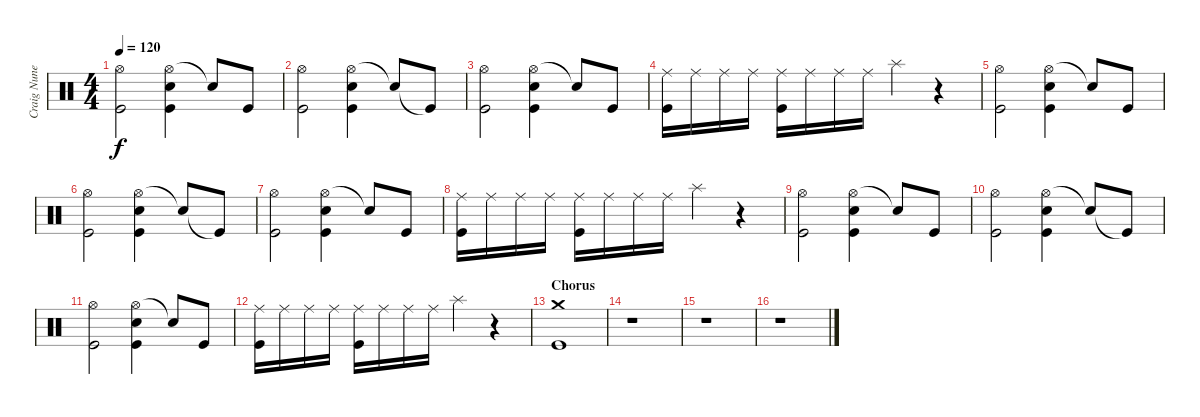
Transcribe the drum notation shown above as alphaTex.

\track ("Craig Nunenmacher" "Craig Nune") {instrument percussion}
\staff {score}
\articulation defaults
\ts (4 4)
\tempo 120
\clef neutral
\ks c
("Hi-Hat (open)" "Kick (hit)").2{dy f} ("Hi-Hat (open)" "Snare (hit) 2" "Kick (hit)").4 "Snare (hit)"{t}.8 "Kick (hit)".8 |
("Hi-Hat (open)" "Kick (hit)").2 ("Hi-Hat (open)" "Snare (hit) 2" "Kick (hit)").4 "Snare (hit)"{t}.8 "Kick (hit)"{t}.8 |
("Hi-Hat (open)" "Kick (hit)").2 ("Hi-Hat (open)" "Snare (hit) 2" "Kick (hit)").4 "Snare (hit)"{t}.8 "Kick (hit)".8 |
("Ride (middle)" "Kick (hit)").16 "Ride (middle)".16 "Ride (middle)".16 "Ride (middle)".16 ("Ride (middle)" "Kick (hit)").16 "Ride (middle)".16 "Ride (middle)".16 "Ride (middle)".16 "Splash (hit)".4 r.4 |
("Hi-Hat (open)" "Kick (hit)").2 ("Hi-Hat (open)" "Snare (hit) 2" "Kick (hit)").4 "Snare (hit)"{t}.8 "Kick (hit)".8 |
("Hi-Hat (open)" "Kick (hit)").2 ("Hi-Hat (open)" "Snare (hit) 2" "Kick (hit)").4 "Snare (hit)"{t}.8 "Kick (hit)"{t}.8 |
("Hi-Hat (open)" "Kick (hit)").2 ("Hi-Hat (open)" "Snare (hit) 2" "Kick (hit)").4 "Snare (hit)"{t}.8 "Kick (hit)".8 |
("Ride (middle)" "Kick (hit)").16 "Ride (middle)".16 "Ride (middle)".16 "Ride (middle)".16 ("Ride (middle)" "Kick (hit)").16 "Ride (middle)".16 "Ride (middle)".16 "Ride (middle)".16 "Splash (hit)".4 r.4 |
("Hi-Hat (open)" "Kick (hit)").2 ("Hi-Hat (open)" "Snare (hit) 2" "Kick (hit)").4 "Snare (hit)"{t}.8 "Kick (hit)".8 |
("Hi-Hat (open)" "Kick (hit)").2 ("Hi-Hat (open)" "Snare (hit) 2" "Kick (hit)").4 "Snare (hit)"{t}.8 "Kick (hit)"{t}.8 |
("Hi-Hat (open)" "Kick (hit)").2 ("Hi-Hat (open)" "Snare (hit) 2" "Kick (hit)").4 "Snare (hit)"{t}.8 "Kick (hit)".8 |
("Ride (middle)" "Kick (hit)").16 "Ride (middle)".16 "Ride (middle)".16 "Ride (middle)".16 ("Ride (middle)" "Kick (hit)").16 "Ride (middle)".16 "Ride (middle)".16 "Ride (middle)".16 "Splash (hit)".4 r.4 |
\section ("" "Chorus")
("Crash medium (hit)" "Kick (hit)").1 |
r.1 |
r.1 |
r.1
